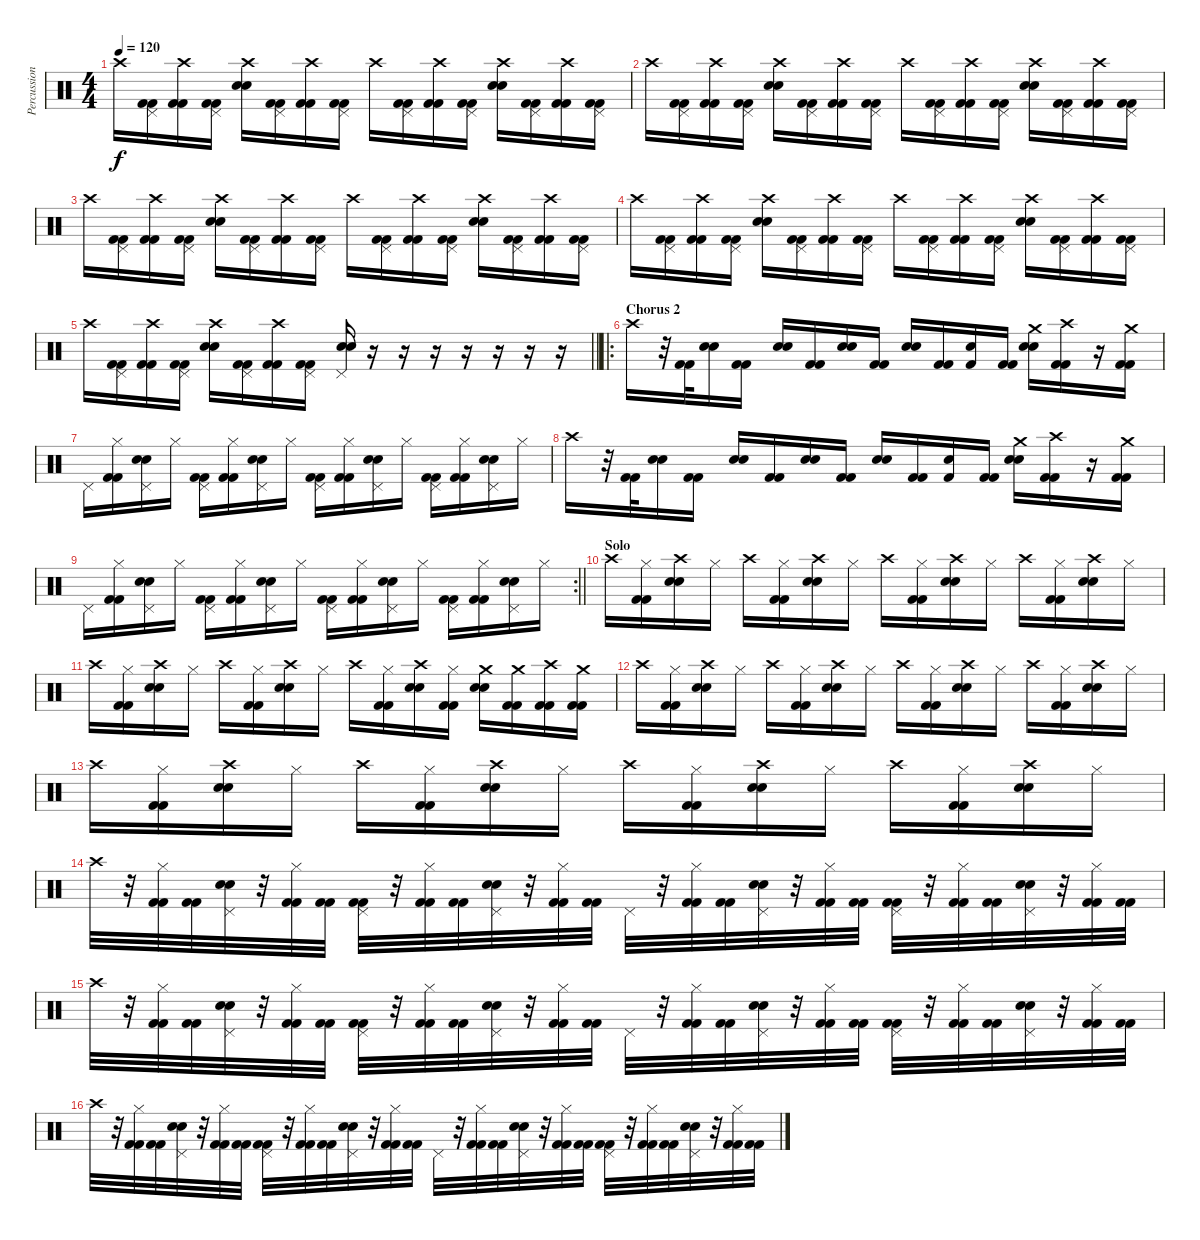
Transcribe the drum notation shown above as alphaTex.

\track ("Percussions" "Percussion") {instrument percussion}
\staff {score}
\articulation defaults
\ts (4 4)
\tempo 120
\clef neutral
\ks c "Crash high (hit)".16{dy f}
("Pedal Hi-Hat (hit)" "Kick (hit) 2" "Kick (hit) 2").16 ("Crash high (hit)" "Kick (hit) 2" "Kick (hit) 2").16 ("Pedal Hi-Hat (hit)" "Kick (hit) 2" "Kick (hit) 2").16 ("Crash high (hit)" "Snare (hit) 2" "Electric Snare (hit)").16 ("Pedal Hi-Hat (hit)" "Kick (hit) 2" "Kick (hit) 2").16 ("Crash high (hit)" "Kick (hit) 2" "Kick (hit) 2").16 ("Pedal Hi-Hat (hit)" "Kick (hit) 2" "Kick (hit) 2").16 "Crash high (hit)".16 ("Pedal Hi-Hat (hit)" "Kick (hit) 2" "Kick (hit) 2").16 ("Crash high (hit)" "Kick (hit) 2" "Kick (hit) 2").16 ("Pedal Hi-Hat (hit)" "Kick (hit) 2" "Kick (hit) 2").16 ("Crash high (hit)" "Snare (hit) 2" "Electric Snare (hit)").16 ("Pedal Hi-Hat (hit)" "Kick (hit) 2" "Kick (hit) 2").16 ("Crash high (hit)" "Kick (hit) 2" "Kick (hit) 2").16 ("Pedal Hi-Hat (hit)" "Kick (hit) 2" "Kick (hit) 2").16 |
"Crash high (hit)".16 ("Pedal Hi-Hat (hit)" "Kick (hit) 2" "Kick (hit) 2").16 ("Crash high (hit)" "Kick (hit) 2" "Kick (hit) 2").16 ("Pedal Hi-Hat (hit)" "Kick (hit) 2" "Kick (hit) 2").16 ("Crash high (hit)" "Snare (hit) 2" "Electric Snare (hit)").16 ("Pedal Hi-Hat (hit)" "Kick (hit) 2" "Kick (hit) 2").16 ("Crash high (hit)" "Kick (hit) 2" "Kick (hit) 2").16 ("Pedal Hi-Hat (hit)" "Kick (hit) 2" "Kick (hit) 2").16 "Crash high (hit)".16 ("Pedal Hi-Hat (hit)" "Kick (hit) 2" "Kick (hit) 2").16 ("Crash high (hit)" "Kick (hit) 2" "Kick (hit) 2").16 ("Pedal Hi-Hat (hit)" "Kick (hit) 2" "Kick (hit) 2").16 ("Crash high (hit)" "Snare (hit) 2" "Electric Snare (hit)").16 ("Pedal Hi-Hat (hit)" "Kick (hit) 2" "Kick (hit) 2").16 ("Crash high (hit)" "Kick (hit) 2" "Kick (hit) 2").16 ("Pedal Hi-Hat (hit)" "Kick (hit) 2" "Kick (hit) 2").16 |
"Crash high (hit)".16 ("Pedal Hi-Hat (hit)" "Kick (hit) 2" "Kick (hit) 2").16 ("Crash high (hit)" "Kick (hit) 2" "Kick (hit) 2").16 ("Pedal Hi-Hat (hit)" "Kick (hit) 2" "Kick (hit) 2").16 ("Crash high (hit)" "Snare (hit) 2" "Electric Snare (hit)").16 ("Pedal Hi-Hat (hit)" "Kick (hit) 2" "Kick (hit) 2").16 ("Crash high (hit)" "Kick (hit) 2" "Kick (hit) 2").16 ("Pedal Hi-Hat (hit)" "Kick (hit) 2" "Kick (hit) 2").16 "Crash high (hit)".16 ("Pedal Hi-Hat (hit)" "Kick (hit) 2" "Kick (hit) 2").16 ("Crash high (hit)" "Kick (hit) 2" "Kick (hit) 2").16 ("Pedal Hi-Hat (hit)" "Kick (hit) 2" "Kick (hit) 2").16 ("Crash high (hit)" "Snare (hit) 2" "Electric Snare (hit)").16 ("Pedal Hi-Hat (hit)" "Kick (hit) 2" "Kick (hit) 2").16 ("Crash high (hit)" "Kick (hit) 2" "Kick (hit) 2").16 ("Pedal Hi-Hat (hit)" "Kick (hit) 2" "Kick (hit) 2").16 |
"Crash high (hit)".16 ("Pedal Hi-Hat (hit)" "Kick (hit) 2" "Kick (hit) 2").16 ("Crash high (hit)" "Kick (hit) 2" "Kick (hit) 2").16 ("Pedal Hi-Hat (hit)" "Kick (hit) 2" "Kick (hit) 2").16 ("Crash high (hit)" "Snare (hit) 2" "Electric Snare (hit)").16 ("Pedal Hi-Hat (hit)" "Kick (hit) 2" "Kick (hit) 2").16 ("Crash high (hit)" "Kick (hit) 2" "Kick (hit) 2").16 ("Pedal Hi-Hat (hit)" "Kick (hit) 2" "Kick (hit) 2").16 "Crash high (hit)".16 ("Pedal Hi-Hat (hit)" "Kick (hit) 2" "Kick (hit) 2").16 ("Crash high (hit)" "Kick (hit) 2" "Kick (hit) 2").16 ("Pedal Hi-Hat (hit)" "Kick (hit) 2" "Kick (hit) 2").16 ("Crash high (hit)" "Snare (hit) 2" "Electric Snare (hit)").16 ("Pedal Hi-Hat (hit)" "Kick (hit) 2" "Kick (hit) 2").16 ("Crash high (hit)" "Kick (hit) 2" "Kick (hit) 2").16 ("Pedal Hi-Hat (hit)" "Kick (hit) 2" "Kick (hit) 2").16 |
\barLineRight lightlight "Crash high (hit)".16
("Pedal Hi-Hat (hit)" "Kick (hit) 2" "Kick (hit) 2").16 ("Crash high (hit)" "Kick (hit) 2" "Kick (hit) 2").16 ("Pedal Hi-Hat (hit)" "Kick (hit) 2" "Kick (hit) 2").16 ("Crash high (hit)" "Snare (hit) 2" "Electric Snare (hit)").16 ("Pedal Hi-Hat (hit)" "Kick (hit) 2" "Kick (hit) 2").16 ("Crash high (hit)" "Kick (hit) 2" "Kick (hit) 2").16 ("Pedal Hi-Hat (hit)" "Kick (hit) 2" "Kick (hit) 2").16 ("Pedal Hi-Hat (hit)" "Snare (hit) 2" "Electric Snare (hit)").16 r.16 r.16 r.16 r.16 r.16 r.16 r.16 |
\ro
\section ("" "Chorus 2")
"Crash high (hit)".16 r.32 ("Kick (hit) 2" "Kick (hit) 2").32 ("Snare (hit) 2" "Electric Snare (hit)").16 ("Kick (hit) 2" "Kick (hit) 2").16 ("Snare (hit) 2" "Electric Snare (hit)").16 ("Kick (hit) 2" "Kick (hit) 2").16 ("Snare (hit) 2" "Electric Snare (hit)").16 ("Kick (hit) 2" "Kick (hit) 2").16 ("Snare (hit) 2" "Electric Snare (hit)").16 ("Kick (hit) 2" "Kick (hit) 2").16 ("Kick (hit) 2" "Electric Snare (hit)").16 ("Kick (hit) 2" "Kick (hit) 2").16 ("Crash medium (hit)" "Snare (hit) 2" "Electric Snare (hit)").16 ("Crash high (hit)" "Kick (hit) 2" "Kick (hit) 2").16 r.16 ("Crash medium (hit)" "Kick (hit) 2" "Kick (hit) 2").16 |
"Pedal Hi-Hat (hit)".16 ("Hi-Hat (closed)" "Kick (hit) 2" "Kick (hit) 2").16 ("Pedal Hi-Hat (hit)" "Snare (hit) 2" "Electric Snare (hit)").16 "Hi-Hat (closed)".16 ("Pedal Hi-Hat (hit)" "Kick (hit) 2" "Kick (hit) 2").16 ("Hi-Hat (closed)" "Kick (hit) 2" "Kick (hit) 2").16 ("Pedal Hi-Hat (hit)" "Snare (hit) 2" "Electric Snare (hit)").16 "Hi-Hat (closed)".16 ("Pedal Hi-Hat (hit)" "Kick (hit) 2" "Kick (hit) 2").16 ("Hi-Hat (closed)" "Kick (hit) 2" "Kick (hit) 2").16 ("Pedal Hi-Hat (hit)" "Snare (hit) 2" "Electric Snare (hit)").16 "Hi-Hat (closed)".16 ("Pedal Hi-Hat (hit)" "Kick (hit) 2" "Kick (hit) 2").16 ("Hi-Hat (closed)" "Kick (hit) 2" "Kick (hit) 2").16 ("Pedal Hi-Hat (hit)" "Snare (hit) 2" "Electric Snare (hit)").16 "Hi-Hat (closed)".16 |
"Crash high (hit)".16 r.32 ("Kick (hit) 2" "Kick (hit) 2").32 ("Snare (hit) 2" "Electric Snare (hit)").16 ("Kick (hit) 2" "Kick (hit) 2").16 ("Snare (hit) 2" "Electric Snare (hit)").16 ("Kick (hit) 2" "Kick (hit) 2").16 ("Snare (hit) 2" "Electric Snare (hit)").16 ("Kick (hit) 2" "Kick (hit) 2").16 ("Snare (hit) 2" "Electric Snare (hit)").16 ("Kick (hit) 2" "Kick (hit) 2").16 ("Kick (hit) 2" "Electric Snare (hit)").16 ("Kick (hit) 2" "Kick (hit) 2").16 ("Crash medium (hit)" "Snare (hit) 2" "Electric Snare (hit)").16 ("Crash high (hit)" "Kick (hit) 2" "Kick (hit) 2").16 r.16 ("Crash medium (hit)" "Kick (hit) 2" "Kick (hit) 2").16 |
\rc 2
\barLineRight lightlight "Pedal Hi-Hat (hit)".16
("Hi-Hat (closed)" "Kick (hit) 2" "Kick (hit) 2").16 ("Pedal Hi-Hat (hit)" "Snare (hit) 2" "Electric Snare (hit)").16 "Hi-Hat (closed)".16 ("Pedal Hi-Hat (hit)" "Kick (hit) 2" "Kick (hit) 2").16 ("Hi-Hat (closed)" "Kick (hit) 2" "Kick (hit) 2").16 ("Pedal Hi-Hat (hit)" "Snare (hit) 2" "Electric Snare (hit)").16 "Hi-Hat (closed)".16 ("Pedal Hi-Hat (hit)" "Kick (hit) 2" "Kick (hit) 2").16 ("Hi-Hat (closed)" "Kick (hit) 2" "Kick (hit) 2").16 ("Pedal Hi-Hat (hit)" "Snare (hit) 2" "Electric Snare (hit)").16 "Hi-Hat (closed)".16 ("Pedal Hi-Hat (hit)" "Kick (hit) 2" "Kick (hit) 2").16 ("Hi-Hat (closed)" "Kick (hit) 2" "Kick (hit) 2").16 ("Pedal Hi-Hat (hit)" "Snare (hit) 2" "Electric Snare (hit)").16 "Hi-Hat (closed)".16 |
\section ("" "Solo")
"Crash high (hit)".16 ("Hi-Hat (closed)" "Kick (hit) 2" "Kick (hit) 2").16 ("Crash high (hit)" "Snare (hit) 2" "Electric Snare (hit)").16 "Hi-Hat (closed)".16 "Crash high (hit)".16 ("Hi-Hat (closed)" "Kick (hit) 2" "Kick (hit) 2").16 ("Crash high (hit)" "Snare (hit) 2" "Electric Snare (hit)").16 "Hi-Hat (closed)".16 "Crash high (hit)".16 ("Hi-Hat (closed)" "Kick (hit) 2" "Kick (hit) 2").16 ("Crash high (hit)" "Snare (hit) 2" "Electric Snare (hit)").16 "Hi-Hat (closed)".16 "Crash high (hit)".16 ("Hi-Hat (closed)" "Kick (hit) 2" "Kick (hit) 2").16 ("Crash high (hit)" "Snare (hit) 2" "Electric Snare (hit)").16 "Hi-Hat (closed)".16 |
"Crash high (hit)".16 ("Hi-Hat (closed)" "Kick (hit) 2" "Kick (hit) 2").16 ("Crash high (hit)" "Snare (hit) 2" "Electric Snare (hit)").16 "Hi-Hat (closed)".16 "Crash high (hit)".16 ("Hi-Hat (closed)" "Kick (hit) 2" "Kick (hit) 2").16 ("Crash high (hit)" "Snare (hit) 2" "Electric Snare (hit)").16 "Hi-Hat (closed)".16 "Crash high (hit)".16 ("Hi-Hat (closed)" "Kick (hit) 2" "Kick (hit) 2").16 ("Crash high (hit)" "Snare (hit) 2" "Electric Snare (hit)").16 ("Hi-Hat (closed)" "Kick (hit) 2" "Kick (hit) 2").16 ("Crash medium (hit)" "Snare (hit) 2" "Electric Snare (hit)").16 ("Crash medium (hit)" "Kick (hit) 2" "Kick (hit) 2").16 ("Crash high (hit)" "Kick (hit) 2" "Kick (hit) 2").16 ("Crash medium (hit)" "Kick (hit) 2" "Kick (hit) 2").16 |
"Crash high (hit)".16 ("Hi-Hat (closed)" "Kick (hit) 2" "Kick (hit) 2").16 ("Crash high (hit)" "Snare (hit) 2" "Electric Snare (hit)").16 "Hi-Hat (closed)".16 "Crash high (hit)".16 ("Hi-Hat (closed)" "Kick (hit) 2" "Kick (hit) 2").16 ("Crash high (hit)" "Snare (hit) 2" "Electric Snare (hit)").16 "Hi-Hat (closed)".16 "Crash high (hit)".16 ("Hi-Hat (closed)" "Kick (hit) 2" "Kick (hit) 2").16 ("Crash high (hit)" "Snare (hit) 2" "Electric Snare (hit)").16 "Hi-Hat (closed)".16 "Crash high (hit)".16 ("Hi-Hat (closed)" "Kick (hit) 2" "Kick (hit) 2").16 ("Crash high (hit)" "Snare (hit) 2" "Electric Snare (hit)").16 "Hi-Hat (closed)".16 |
"Crash high (hit)".16 ("Hi-Hat (closed)" "Kick (hit) 2" "Kick (hit) 2").16 ("Crash high (hit)" "Snare (hit) 2" "Electric Snare (hit)").16 "Hi-Hat (closed)".16 "Crash high (hit)".16 ("Hi-Hat (closed)" "Kick (hit) 2" "Kick (hit) 2").16 ("Crash high (hit)" "Snare (hit) 2" "Electric Snare (hit)").16 "Hi-Hat (closed)".16 "Crash high (hit)".16 ("Hi-Hat (closed)" "Kick (hit) 2" "Kick (hit) 2").16 ("Crash high (hit)" "Snare (hit) 2" "Electric Snare (hit)").16 "Hi-Hat (closed)".16 "Crash high (hit)".16 ("Hi-Hat (closed)" "Kick (hit) 2" "Kick (hit) 2").16 ("Crash high (hit)" "Snare (hit) 2" "Electric Snare (hit)").16 "Hi-Hat (closed)".16 |
"Crash high (hit)".32 r.32 ("Hi-Hat (closed)" "Kick (hit) 2" "Kick (hit) 2").32 ("Kick (hit) 2" "Kick (hit) 2").32 ("Pedal Hi-Hat (hit)" "Snare (hit) 2" "Electric Snare (hit)").32 r.32 ("Hi-Hat (closed)" "Kick (hit) 2" "Kick (hit) 2").32 ("Kick (hit) 2" "Kick (hit) 2").32 ("Pedal Hi-Hat (hit)" "Kick (hit) 2" "Kick (hit) 2").32 r.32 ("Hi-Hat (closed)" "Kick (hit) 2" "Kick (hit) 2").32 ("Kick (hit) 2" "Kick (hit) 2").32 ("Pedal Hi-Hat (hit)" "Snare (hit) 2" "Electric Snare (hit)").32 r.32 ("Hi-Hat (closed)" "Kick (hit) 2" "Kick (hit) 2").32 ("Kick (hit) 2" "Kick (hit) 2").32 "Pedal Hi-Hat (hit)".32 r.32 ("Hi-Hat (closed)" "Kick (hit) 2" "Kick (hit) 2").32 ("Kick (hit) 2" "Kick (hit) 2").32 ("Pedal Hi-Hat (hit)" "Snare (hit) 2" "Electric Snare (hit)").32 r.32 ("Hi-Hat (closed)" "Kick (hit) 2" "Kick (hit) 2").32 ("Kick (hit) 2" "Kick (hit) 2").32 ("Pedal Hi-Hat (hit)" "Kick (hit) 2" "Kick (hit) 2").32 r.32 ("Hi-Hat (closed)" "Kick (hit) 2" "Kick (hit) 2").32 ("Kick (hit) 2" "Kick (hit) 2").32 ("Pedal Hi-Hat (hit)" "Snare (hit) 2" "Electric Snare (hit)").32 r.32 ("Hi-Hat (closed)" "Kick (hit) 2" "Kick (hit) 2").32 ("Kick (hit) 2" "Kick (hit) 2").32 |
"Crash high (hit)".32 r.32 ("Hi-Hat (closed)" "Kick (hit) 2" "Kick (hit) 2").32 ("Kick (hit) 2" "Kick (hit) 2").32 ("Pedal Hi-Hat (hit)" "Snare (hit) 2" "Electric Snare (hit)").32 r.32 ("Hi-Hat (closed)" "Kick (hit) 2" "Kick (hit) 2").32 ("Kick (hit) 2" "Kick (hit) 2").32 ("Pedal Hi-Hat (hit)" "Kick (hit) 2" "Kick (hit) 2").32 r.32 ("Hi-Hat (closed)" "Kick (hit) 2" "Kick (hit) 2").32 ("Kick (hit) 2" "Kick (hit) 2").32 ("Pedal Hi-Hat (hit)" "Snare (hit) 2" "Electric Snare (hit)").32 r.32 ("Hi-Hat (closed)" "Kick (hit) 2" "Kick (hit) 2").32 ("Kick (hit) 2" "Kick (hit) 2").32 "Pedal Hi-Hat (hit)".32 r.32 ("Hi-Hat (closed)" "Kick (hit) 2" "Kick (hit) 2").32 ("Kick (hit) 2" "Kick (hit) 2").32 ("Pedal Hi-Hat (hit)" "Snare (hit) 2" "Electric Snare (hit)").32 r.32 ("Hi-Hat (closed)" "Kick (hit) 2" "Kick (hit) 2").32 ("Kick (hit) 2" "Kick (hit) 2").32 ("Pedal Hi-Hat (hit)" "Kick (hit) 2" "Kick (hit) 2").32 r.32 ("Hi-Hat (closed)" "Kick (hit) 2" "Kick (hit) 2").32 ("Kick (hit) 2" "Kick (hit) 2").32 ("Pedal Hi-Hat (hit)" "Snare (hit) 2" "Electric Snare (hit)").32 r.32 ("Hi-Hat (closed)" "Kick (hit) 2" "Kick (hit) 2").32 ("Kick (hit) 2" "Kick (hit) 2").32 |
"Crash high (hit)".32 r.32 ("Hi-Hat (closed)" "Kick (hit) 2" "Kick (hit) 2").32 ("Kick (hit) 2" "Kick (hit) 2").32 ("Pedal Hi-Hat (hit)" "Snare (hit) 2" "Electric Snare (hit)").32 r.32 ("Hi-Hat (closed)" "Kick (hit) 2" "Kick (hit) 2").32 ("Kick (hit) 2" "Kick (hit) 2").32 ("Pedal Hi-Hat (hit)" "Kick (hit) 2" "Kick (hit) 2").32 r.32 ("Hi-Hat (closed)" "Kick (hit) 2" "Kick (hit) 2").32 ("Kick (hit) 2" "Kick (hit) 2").32 ("Pedal Hi-Hat (hit)" "Snare (hit) 2" "Electric Snare (hit)").32 r.32 ("Hi-Hat (closed)" "Kick (hit) 2" "Kick (hit) 2").32 ("Kick (hit) 2" "Kick (hit) 2").32 "Pedal Hi-Hat (hit)".32 r.32 ("Hi-Hat (closed)" "Kick (hit) 2" "Kick (hit) 2").32 ("Kick (hit) 2" "Kick (hit) 2").32 ("Pedal Hi-Hat (hit)" "Snare (hit) 2" "Electric Snare (hit)").32 r.32 ("Hi-Hat (closed)" "Kick (hit) 2" "Kick (hit) 2").32 ("Kick (hit) 2" "Kick (hit) 2").32 ("Pedal Hi-Hat (hit)" "Kick (hit) 2" "Kick (hit) 2").32 r.32 ("Hi-Hat (closed)" "Kick (hit) 2" "Kick (hit) 2").32 ("Kick (hit) 2" "Kick (hit) 2").32 ("Pedal Hi-Hat (hit)" "Snare (hit) 2" "Electric Snare (hit)").32 r.32 ("Hi-Hat (closed)" "Kick (hit) 2" "Kick (hit) 2").32 ("Kick (hit) 2" "Kick (hit) 2").32
